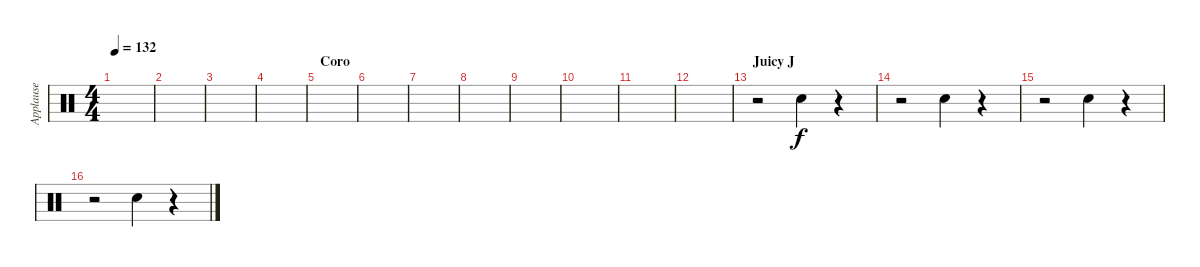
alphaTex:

\track ("Applause" "Applause") {instrument percussion}
\staff {score}
\articulation defaults
\ts (4 4)
\tempo 132
\clef neutral
\ks c
|
|
|
|
\section ("" "Coro")
|
|
|
|
|
|
|
|
\section ("" "Juicy J")
r.2 "Hand Clap (hit)".4 r.4 |
r.2 "Hand Clap (hit)".4 r.4 |
r.2 "Hand Clap (hit)".4 r.4 |
r.2 "Hand Clap (hit)".4 r.4
